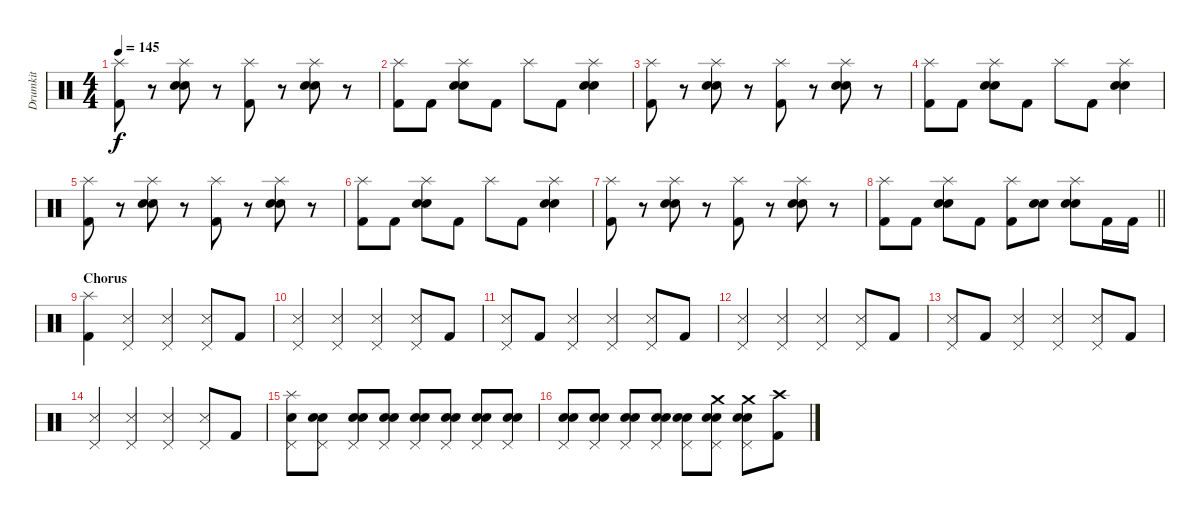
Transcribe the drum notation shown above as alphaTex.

\track ("Drumkit" "Drumkit") {instrument percussion}
\staff {score}
\articulation defaults
\ts (4 4)
\tempo 145
\clef neutral
\ks c
("Splash (hit)" "Kick (hit) 2").8{dy f} r.8 ("Splash (hit)" "Electric Snare (hit)" "Snare (hit) 2").8 r.8 ("Splash (hit)" "Kick (hit) 2").8 r.8 ("Splash (hit)" "Electric Snare (hit)" "Snare (hit) 2").8 r.8 |
("Splash (hit)" "Kick (hit) 2").8 "Kick (hit) 2".8 ("Splash (hit)" "Electric Snare (hit)" "Snare (hit) 2").8 "Kick (hit) 2".8 "Splash (hit)".8 "Kick (hit) 2".8 ("Splash (hit)" "Electric Snare (hit)" "Snare (hit) 2").4 |
("Splash (hit)" "Kick (hit) 2").8 r.8 ("Splash (hit)" "Electric Snare (hit)" "Snare (hit) 2").8 r.8 ("Splash (hit)" "Kick (hit) 2").8 r.8 ("Splash (hit)" "Electric Snare (hit)" "Snare (hit) 2").8 r.8 |
("Splash (hit)" "Kick (hit) 2").8 "Kick (hit) 2".8 ("Splash (hit)" "Electric Snare (hit)" "Snare (hit) 2").8 "Kick (hit) 2".8 "Splash (hit)".8 "Kick (hit) 2".8 ("Splash (hit)" "Electric Snare (hit)" "Snare (hit) 2").4 |
("Splash (hit)" "Kick (hit) 2").8 r.8 ("Splash (hit)" "Electric Snare (hit)" "Snare (hit) 2").8 r.8 ("Splash (hit)" "Kick (hit) 2").8 r.8 ("Splash (hit)" "Electric Snare (hit)" "Snare (hit) 2").8 r.8 |
("Splash (hit)" "Kick (hit) 2").8 "Kick (hit) 2".8 ("Splash (hit)" "Electric Snare (hit)" "Snare (hit) 2").8 "Kick (hit) 2".8 "Splash (hit)".8 "Kick (hit) 2".8 ("Splash (hit)" "Electric Snare (hit)" "Snare (hit) 2").4 |
("Splash (hit)" "Kick (hit) 2").8 r.8 ("Splash (hit)" "Electric Snare (hit)" "Snare (hit) 2").8 r.8 ("Splash (hit)" "Kick (hit) 2").8 r.8 ("Splash (hit)" "Electric Snare (hit)" "Snare (hit) 2").8 r.8 |
\barLineRight lightlight
("Splash (hit)" "Kick (hit) 2").8 "Kick (hit) 2".8 ("Splash (hit)" "Electric Snare (hit)" "Snare (hit) 2").8 "Kick (hit) 2".8 ("Splash (hit)" "Kick (hit) 2").8 ("Electric Snare (hit)" "Snare (hit) 2").8 ("Splash (hit)" "Electric Snare (hit)" "Snare (hit) 2").8 "Kick (hit) 2".16 "Kick (hit) 2".16 |
\section ("" "Chorus")
("Splash (hit)" "Kick (hit) 2").4 ("Pedal Hi-Hat (hit)" "Snare (side stick) 3").4 ("Pedal Hi-Hat (hit)" "Snare (side stick) 3").4 ("Pedal Hi-Hat (hit)" "Snare (side stick) 3").8 "Kick (hit) 2".8 |
("Pedal Hi-Hat (hit)" "Snare (side stick) 3").4 ("Pedal Hi-Hat (hit)" "Snare (side stick) 3").4 ("Pedal Hi-Hat (hit)" "Snare (side stick) 3").4 ("Pedal Hi-Hat (hit)" "Snare (side stick) 3").8 "Kick (hit) 2".8 |
("Pedal Hi-Hat (hit)" "Snare (side stick) 3").8 "Kick (hit) 2".8 ("Pedal Hi-Hat (hit)" "Snare (side stick) 3").4 ("Pedal Hi-Hat (hit)" "Snare (side stick) 3").4 ("Pedal Hi-Hat (hit)" "Snare (side stick) 3").8 "Kick (hit) 2".8 |
("Pedal Hi-Hat (hit)" "Snare (side stick) 3").4 ("Pedal Hi-Hat (hit)" "Snare (side stick) 3").4 ("Pedal Hi-Hat (hit)" "Snare (side stick) 3").4 ("Pedal Hi-Hat (hit)" "Snare (side stick) 3").8 "Kick (hit) 2".8 |
("Pedal Hi-Hat (hit)" "Snare (side stick) 3").8 "Kick (hit) 2".8 ("Pedal Hi-Hat (hit)" "Snare (side stick) 3").4 ("Pedal Hi-Hat (hit)" "Snare (side stick) 3").4 ("Pedal Hi-Hat (hit)" "Snare (side stick) 3").8 "Kick (hit) 2".8 |
("Pedal Hi-Hat (hit)" "Snare (side stick) 3").4 ("Pedal Hi-Hat (hit)" "Snare (side stick) 3").4 ("Pedal Hi-Hat (hit)" "Snare (side stick) 3").4 ("Pedal Hi-Hat (hit)" "Snare (side stick) 3").8 "Kick (hit) 2".8 |
("Splash (hit)" "Pedal Hi-Hat (hit)" "Electric Snare (hit)").8 ("Pedal Hi-Hat (hit)" "Electric Snare (hit)" "Snare (hit) 2").8{volume 3} ("Pedal Hi-Hat (hit)" "Electric Snare (hit)" "Snare (hit) 2").8{volume 12} ("Pedal Hi-Hat (hit)" "Electric Snare (hit)" "Snare (hit) 2").8 ("Pedal Hi-Hat (hit)" "Electric Snare (hit)" "Snare (hit) 2").8 ("Pedal Hi-Hat (hit)" "Electric Snare (hit)" "Snare (hit) 2").8 ("Pedal Hi-Hat (hit)" "Electric Snare (hit)" "Snare (hit) 2").8 ("Pedal Hi-Hat (hit)" "Electric Snare (hit)" "Snare (hit) 2").8 |
("Pedal Hi-Hat (hit)" "Electric Snare (hit)" "Snare (hit) 2").8 ("Pedal Hi-Hat (hit)" "Electric Snare (hit)" "Snare (hit) 2").8 ("Pedal Hi-Hat (hit)" "Electric Snare (hit)" "Snare (hit) 2").8 ("Pedal Hi-Hat (hit)" "Electric Snare (hit)" "Snare (hit) 2").8 ("Pedal Hi-Hat (hit)" "Electric Snare (hit)" "Snare (hit) 2").8 ("Crash medium (hit)" "Pedal Hi-Hat (hit)" "Electric Snare (hit)" "Snare (hit) 2").8 ("Crash medium (hit)" "Pedal Hi-Hat (hit)" "Electric Snare (hit)" "Snare (hit) 2").8 ("Crash high (hit)" "Kick (hit) 2").8
